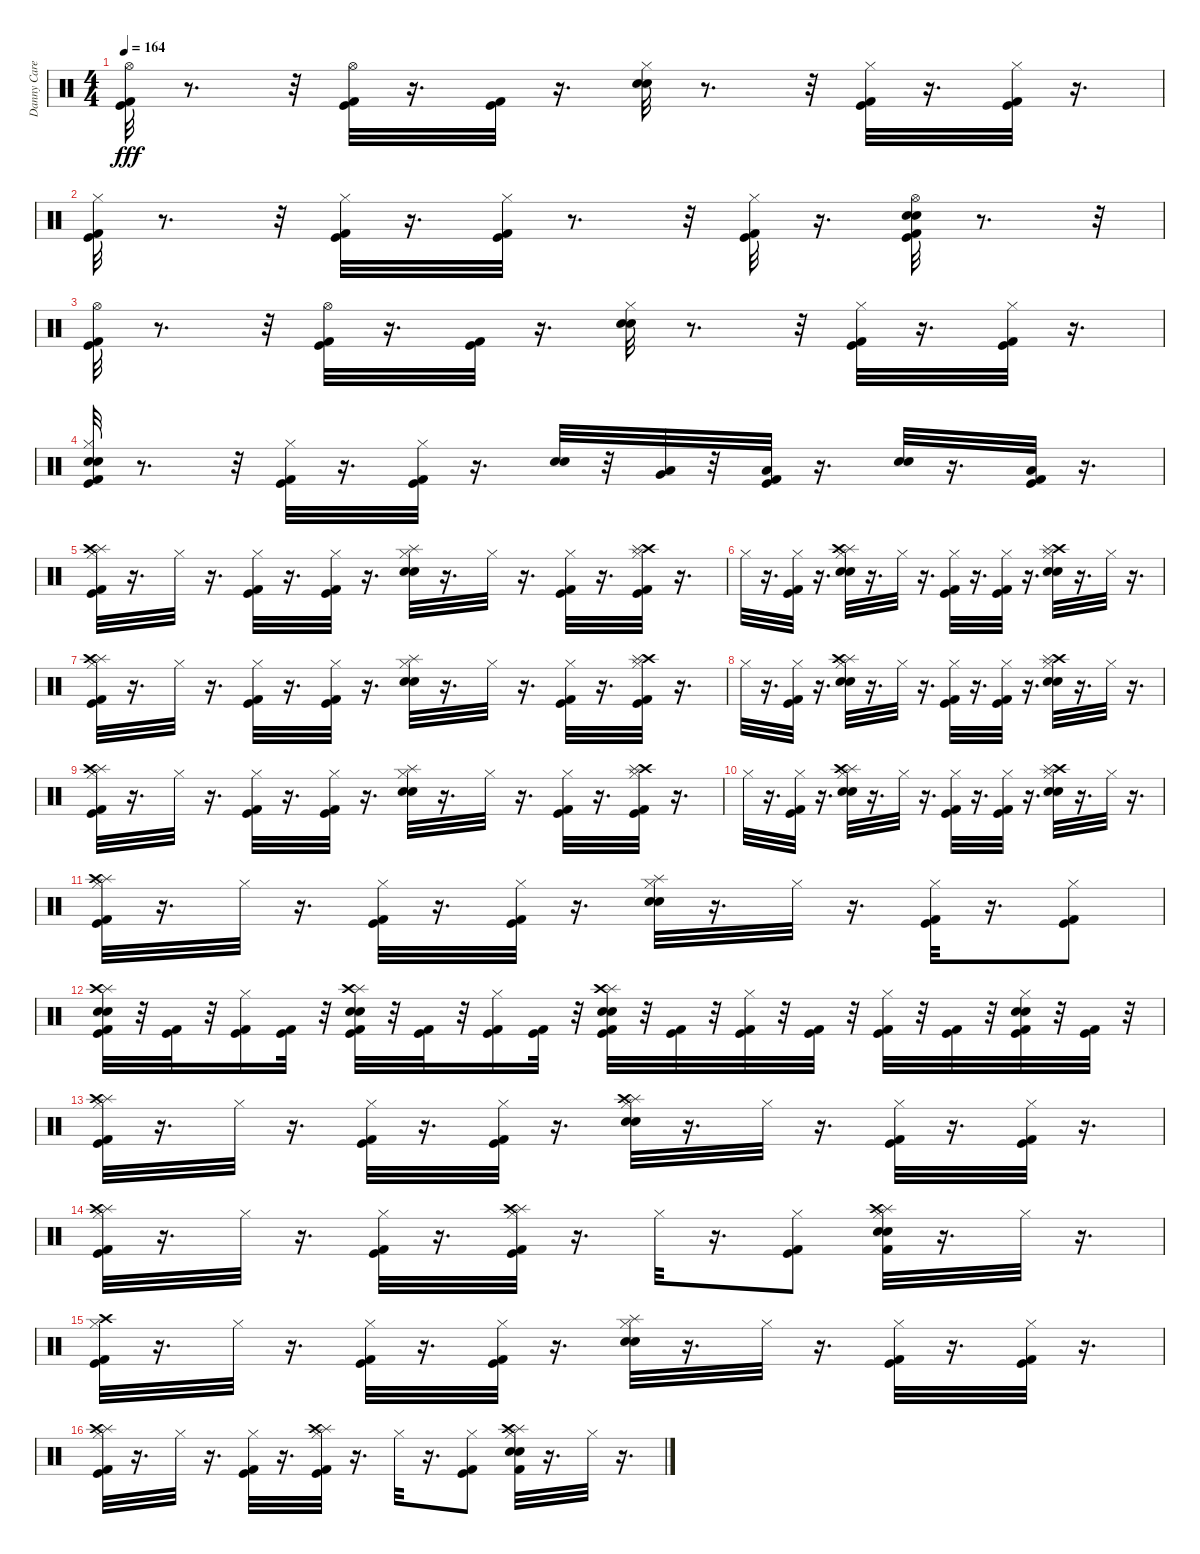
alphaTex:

\track ("Danny Carey" "Danny Care") {instrument percussion}
\staff {score}
\articulation defaults
\ts (4 4)
\tempo 164
\clef neutral
\ks c
("Hi-Hat (open)" "Kick (hit)" "Kick (hit) 2").32{dy fff} r.8{d} r.32 ("Hi-Hat (open)" "Kick (hit)" "Kick (hit) 2").32 r.16{d} ("Kick (hit)" "Kick (hit) 2").32 r.16{d} ("Hi-Hat (closed)" "Electric Snare (hit)" "Snare (hit) 2").32 r.8{d} r.32 ("Hi-Hat (closed)" "Kick (hit)" "Kick (hit) 2").32 r.16{d} ("Hi-Hat (closed)" "Kick (hit) 2" "Kick (hit)").32 r.16{d} |
("Hi-Hat (closed)" "Kick (hit)" "Kick (hit) 2").32 r.8{d} r.32 ("Hi-Hat (closed)" "Kick (hit)" "Kick (hit) 2").32 r.16{d} ("Hi-Hat (closed)" "Kick (hit)" "Kick (hit) 2").32 r.8{d} r.32 ("Hi-Hat (closed)" "Kick (hit)" "Kick (hit) 2").32 r.16{d} ("Hi-Hat (open)" "Electric Snare (hit)" "Snare (hit) 2" "Kick (hit) 2" "Kick (hit)").32 r.8{d} r.32 |
("Hi-Hat (open)" "Kick (hit)" "Kick (hit) 2").32 r.8{d} r.32 ("Hi-Hat (open)" "Kick (hit)" "Kick (hit) 2").32 r.16{d} ("Kick (hit)" "Kick (hit) 2").32 r.16{d} ("Hi-Hat (closed)" "Electric Snare (hit)" "Snare (hit) 2").32 r.8{d} r.32 ("Hi-Hat (closed)" "Kick (hit)" "Kick (hit) 2").32 r.16{d} ("Hi-Hat (closed)" "Kick (hit) 2" "Kick (hit)").32 r.16{d} |
("Snare (hit) 2" "Electric Snare (hit)" "Hi-Hat (closed)" "Kick (hit)" "Kick (hit) 2").32 r.8{d} r.32 ("Hi-Hat (closed)" "Kick (hit)" "Kick (hit) 2").32 r.16{d} ("Hi-Hat (closed)" "Kick (hit)" "Kick (hit) 2").32 r.16{d} ("Snare (hit) 2" "Electric Snare (hit)").32 r.32 ("Very Low Tom (hit)" "Low Tom (hit)").32 r.32 ("Low Floor Tom (hit)" "Kick (hit)" "Kick (hit) 2").32 r.16{d} ("Electric Snare (hit)" "Snare (hit) 2").32 r.16{d} ("Low Floor Tom (hit)" "Kick (hit)" "Kick (hit) 2").32 r.16{d} |
("Splash (hit)" "Crash high (hit)" "Hi-Hat (closed)" "Kick (hit)" "Kick (hit) 2").32 r.16{d} "Hi-Hat (closed)".32 r.16{d} ("Hi-Hat (closed)" "Kick (hit)" "Kick (hit) 2").32 r.16{d} ("Hi-Hat (closed)" "Kick (hit)" "Kick (hit) 2").32 r.16{d} ("Splash (hit)" "Hi-Hat (closed)" "Electric Snare (hit)" "Snare (hit) 2").32 r.16{d} "Hi-Hat (closed)".32 r.16{d} ("Kick (hit)" "Kick (hit) 2" "Hi-Hat (closed)").32 r.16{d} ("Crash high (hit)" "Splash (hit)" "Kick (hit)" "Kick (hit) 2" "Hi-Hat (closed)").32 r.16{d} |
"Hi-Hat (closed)".32 r.16{d} ("Kick (hit)" "Kick (hit) 2" "Hi-Hat (closed)").32 r.16{d} ("Splash (hit)" "Crash high (hit)" "Electric Snare (hit)" "Snare (hit) 2" "Hi-Hat (closed)").32 r.16{d} "Hi-Hat (closed)".32 r.16{d} ("Kick (hit)" "Kick (hit) 2" "Hi-Hat (closed)").32 r.16{d} ("Hi-Hat (closed)" "Kick (hit)" "Kick (hit) 2").32 r.16{d} ("Crash high (hit)" "Splash (hit)" "Electric Snare (hit)" "Snare (hit) 2" "Hi-Hat (closed)").32 r.16{d} "Hi-Hat (closed)".32 r.16{d} |
("Splash (hit)" "Crash high (hit)" "Hi-Hat (closed)" "Kick (hit)" "Kick (hit) 2").32 r.16{d} "Hi-Hat (closed)".32 r.16{d} ("Hi-Hat (closed)" "Kick (hit)" "Kick (hit) 2").32 r.16{d} ("Hi-Hat (closed)" "Kick (hit)" "Kick (hit) 2").32 r.16{d} ("Splash (hit)" "Hi-Hat (closed)" "Electric Snare (hit)" "Snare (hit) 2").32 r.16{d} "Hi-Hat (closed)".32 r.16{d} ("Kick (hit)" "Kick (hit) 2" "Hi-Hat (closed)").32 r.16{d} ("Crash high (hit)" "Splash (hit)" "Kick (hit)" "Kick (hit) 2" "Hi-Hat (closed)").32 r.16{d} |
"Hi-Hat (closed)".32 r.16{d} ("Kick (hit)" "Kick (hit) 2" "Hi-Hat (closed)").32 r.16{d} ("Splash (hit)" "Crash high (hit)" "Electric Snare (hit)" "Snare (hit) 2" "Hi-Hat (closed)").32 r.16{d} "Hi-Hat (closed)".32 r.16{d} ("Kick (hit)" "Kick (hit) 2" "Hi-Hat (closed)").32 r.16{d} ("Hi-Hat (closed)" "Kick (hit)" "Kick (hit) 2").32 r.16{d} ("Crash high (hit)" "Splash (hit)" "Electric Snare (hit)" "Snare (hit) 2" "Hi-Hat (closed)").32 r.16{d} "Hi-Hat (closed)".32 r.16{d} |
("Splash (hit)" "Crash high (hit)" "Hi-Hat (closed)" "Kick (hit)" "Kick (hit) 2").32 r.16{d} "Hi-Hat (closed)".32 r.16{d} ("Hi-Hat (closed)" "Kick (hit)" "Kick (hit) 2").32 r.16{d} ("Hi-Hat (closed)" "Kick (hit)" "Kick (hit) 2").32 r.16{d} ("Splash (hit)" "Hi-Hat (closed)" "Electric Snare (hit)" "Snare (hit) 2").32 r.16{d} "Hi-Hat (closed)".32 r.16{d} ("Kick (hit)" "Kick (hit) 2" "Hi-Hat (closed)").32 r.16{d} ("Crash high (hit)" "Splash (hit)" "Kick (hit)" "Kick (hit) 2" "Hi-Hat (closed)").32 r.16{d} |
"Hi-Hat (closed)".32 r.16{d} ("Kick (hit)" "Kick (hit) 2" "Hi-Hat (closed)").32 r.16{d} ("Splash (hit)" "Crash high (hit)" "Electric Snare (hit)" "Snare (hit) 2" "Hi-Hat (closed)").32 r.16{d} "Hi-Hat (closed)".32 r.16{d} ("Kick (hit)" "Kick (hit) 2" "Hi-Hat (closed)").32 r.16{d} ("Hi-Hat (closed)" "Kick (hit)" "Kick (hit) 2").32 r.16{d} ("Crash high (hit)" "Splash (hit)" "Electric Snare (hit)" "Snare (hit) 2" "Hi-Hat (closed)").32 r.16{d} "Hi-Hat (closed)".32 r.16{d} |
("Splash (hit)" "Crash high (hit)" "Hi-Hat (closed)" "Kick (hit)" "Kick (hit) 2").32 r.16{d} "Hi-Hat (closed)".32 r.16{d} ("Hi-Hat (closed)" "Kick (hit)" "Kick (hit) 2").32 r.16{d} ("Hi-Hat (closed)" "Kick (hit)" "Kick (hit) 2").32 r.16{d} ("Splash (hit)" "Hi-Hat (closed)" "Electric Snare (hit)" "Snare (hit) 2").32 r.16{d} "Hi-Hat (closed)".32 r.16{d} ("Kick (hit)" "Kick (hit) 2" "Hi-Hat (closed)").32 r.16{d} ("Kick (hit)" "Kick (hit) 2" "Hi-Hat (closed)").8 |
("Splash (hit)" "Crash high (hit)" "Kick (hit)" "Kick (hit) 2" "Electric Snare (hit)" "Snare (hit) 2").32 r.32 ("Kick (hit)" "Kick (hit) 2").32 r.32 ("Kick (hit)" "Kick (hit) 2" "Hi-Hat (closed)").16 ("Kick (hit) 2" "Kick (hit)").32 r.32 ("Splash (hit)" "Crash high (hit)" "Kick (hit)" "Kick (hit) 2" "Snare (hit) 2" "Electric Snare (hit)").32 r.32 ("Kick (hit) 2" "Kick (hit)").32 r.32 ("Kick (hit)" "Kick (hit) 2" "Hi-Hat (closed)").16 ("Kick (hit) 2" "Kick (hit)").32 r.32 ("Splash (hit)" "Crash high (hit)" "Electric Snare (hit)" "Snare (hit) 2" "Kick (hit)" "Kick (hit) 2").32 r.32 ("Kick (hit)" "Kick (hit) 2").32 r.32 ("Hi-Hat (closed)" "Kick (hit)" "Kick (hit) 2").32 r.32 ("Kick (hit) 2" "Kick (hit)").32 r.32 ("Kick (hit)" "Kick (hit) 2" "Hi-Hat (closed)").32 r.32 ("Kick (hit) 2" "Kick (hit)").32 r.32 ("Kick (hit)" "Kick (hit) 2" "Snare (hit) 2" "Electric Snare (hit)" "Hi-Hat (closed)").32 r.32 ("Kick (hit)" "Kick (hit) 2").32 r.32 |
("Splash (hit)" "Crash high (hit)" "Hi-Hat (closed)" "Kick (hit)" "Kick (hit) 2").32 r.16{d} "Hi-Hat (closed)".32 r.16{d} ("Hi-Hat (closed)" "Kick (hit)" "Kick (hit) 2").32 r.16{d} ("Hi-Hat (closed)" "Kick (hit)" "Kick (hit) 2").32 r.16{d} ("Splash (hit)" "Crash high (hit)" "Hi-Hat (closed)" "Electric Snare (hit)" "Snare (hit) 2").32 r.16{d} "Hi-Hat (closed)".32 r.16{d} ("Hi-Hat (closed)" "Kick (hit)" "Kick (hit) 2").32 r.16{d} ("Hi-Hat (closed)" "Kick (hit) 2" "Kick (hit)").32 r.16{d} |
("Splash (hit)" "Crash high (hit)" "Hi-Hat (closed)" "Kick (hit)" "Kick (hit) 2").32 r.16{d} "Hi-Hat (closed)".32 r.16{d} ("Hi-Hat (closed)" "Kick (hit)" "Kick (hit) 2").32 r.16{d} ("Splash (hit)" "Crash high (hit)" "Hi-Hat (closed)" "Kick (hit)" "Kick (hit) 2").32 r.16{d} "Hi-Hat (closed)".32 r.16{d} ("Hi-Hat (closed)" "Kick (hit)" "Kick (hit) 2").8 ("Splash (hit)" "Crash high (hit)" "Electric Snare (hit)" "Snare (hit) 2" "Hi-Hat (closed)" "Kick (hit) 2").32 r.16{d} "Hi-Hat (closed)".32 r.16{d} |
("Crash high (hit)" "Hi-Hat (closed)" "Kick (hit)" "Kick (hit) 2").32 r.16{d} "Hi-Hat (closed)".32 r.16{d} ("Hi-Hat (closed)" "Kick (hit)" "Kick (hit) 2").32 r.16{d} ("Hi-Hat (closed)" "Kick (hit)" "Kick (hit) 2").32 r.16{d} ("Splash (hit)" "Hi-Hat (closed)" "Electric Snare (hit)" "Snare (hit) 2").32 r.16{d} "Hi-Hat (closed)".32 r.16{d} ("Hi-Hat (closed)" "Kick (hit)" "Kick (hit) 2").32 r.16{d} ("Hi-Hat (closed)" "Kick (hit) 2" "Kick (hit)").32 r.16{d} |
("Splash (hit)" "Crash high (hit)" "Hi-Hat (closed)" "Kick (hit)" "Kick (hit) 2").32 r.16{d} "Hi-Hat (closed)".32 r.16{d} ("Hi-Hat (closed)" "Kick (hit)" "Kick (hit) 2").32 r.16{d} ("Splash (hit)" "Crash high (hit)" "Hi-Hat (closed)" "Kick (hit)" "Kick (hit) 2").32 r.16{d} "Hi-Hat (closed)".32 r.16{d} ("Hi-Hat (closed)" "Kick (hit)" "Kick (hit) 2").8 ("Splash (hit)" "Crash high (hit)" "Electric Snare (hit)" "Snare (hit) 2" "Hi-Hat (closed)" "Kick (hit) 2").32 r.16{d} "Hi-Hat (closed)".32 r.16{d}
